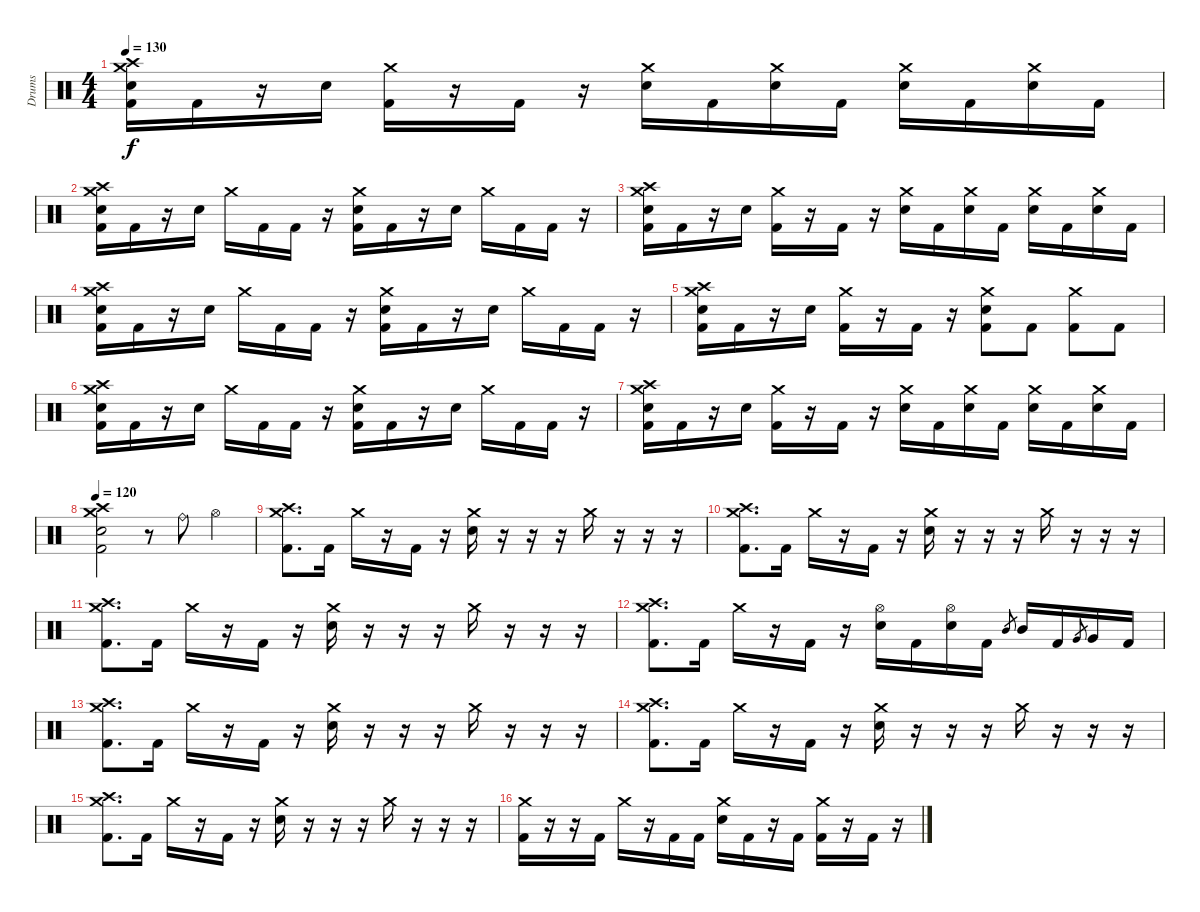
\track ("Drums" "Drums") {instrument percussion}
\staff {score}
\articulation defaults
\ts (4 4)
\tempo 130
\clef neutral
\ks c
("Crash medium (hit)" "Crash high (hit)" "Snare (hit) 2" "Kick (hit) 2").16{dy f} "Kick (hit) 2".16 r.16 "Snare (hit) 2".16 ("Crash medium (hit)" "Kick (hit) 2").16 r.16 "Kick (hit) 2".16 r.16 ("Crash medium (hit)" "Snare (hit) 2").16 "Kick (hit) 2".16 ("Crash medium (hit)" "Snare (hit) 2").16 "Kick (hit) 2".16 ("Crash medium (hit)" "Snare (hit) 2").16 "Kick (hit) 2".16 ("Crash medium (hit)" "Snare (hit) 2").16 "Kick (hit) 2".16 |
("Crash medium (hit)" "Crash high (hit)" "Snare (hit) 2" "Kick (hit) 2").16 "Kick (hit) 2".16 r.16 "Snare (hit) 2".16 "Crash medium (hit)".16 "Kick (hit) 2".16 "Kick (hit) 2".16 r.16 ("Crash medium (hit)" "Snare (hit) 2" "Kick (hit) 2").16 "Kick (hit) 2".16 r.16 "Snare (hit) 2".16 "Crash medium (hit)".16 "Kick (hit) 2".16 "Kick (hit) 2".16 r.16 |
("Crash medium (hit)" "Crash high (hit)" "Snare (hit) 2" "Kick (hit) 2").16 "Kick (hit) 2".16 r.16 "Snare (hit) 2".16 ("Crash medium (hit)" "Kick (hit) 2").16 r.16 "Kick (hit) 2".16 r.16 ("Crash medium (hit)" "Snare (hit) 2").16 "Kick (hit) 2".16 ("Crash medium (hit)" "Snare (hit) 2").16 "Kick (hit) 2".16 ("Crash medium (hit)" "Snare (hit) 2").16 "Kick (hit) 2".16 ("Crash medium (hit)" "Snare (hit) 2").16 "Kick (hit) 2".16 |
("Crash medium (hit)" "Crash high (hit)" "Snare (hit) 2" "Kick (hit) 2").16 "Kick (hit) 2".16 r.16 "Snare (hit) 2".16 "Crash medium (hit)".16 "Kick (hit) 2".16 "Kick (hit) 2".16 r.16 ("Crash medium (hit)" "Snare (hit) 2" "Kick (hit) 2").16 "Kick (hit) 2".16 r.16 "Snare (hit) 2".16 "Crash medium (hit)".16 "Kick (hit) 2".16 "Kick (hit) 2".16 r.16 |
("Crash medium (hit)" "Crash high (hit)" "Snare (hit) 2" "Kick (hit) 2").16 "Kick (hit) 2".16 r.16 "Snare (hit) 2".16 ("Crash medium (hit)" "Kick (hit) 2").16 r.16 "Kick (hit) 2".16 r.16 ("Crash medium (hit)" "Snare (hit) 2" "Kick (hit) 2").8 "Kick (hit) 2".8 ("Crash medium (hit)" "Kick (hit) 2").8 "Kick (hit) 2".8 |
("Crash medium (hit)" "Crash high (hit)" "Snare (hit) 2" "Kick (hit) 2").16 "Kick (hit) 2".16 r.16 "Snare (hit) 2".16 "Crash medium (hit)".16 "Kick (hit) 2".16 "Kick (hit) 2".16 r.16 ("Crash medium (hit)" "Snare (hit) 2" "Kick (hit) 2").16 "Kick (hit) 2".16 r.16 "Snare (hit) 2".16 "Crash medium (hit)".16 "Kick (hit) 2".16 "Kick (hit) 2".16 r.16 |
("Crash medium (hit)" "Crash high (hit)" "Snare (hit) 2" "Kick (hit) 2").16 "Kick (hit) 2".16 r.16 "Snare (hit) 2".16 ("Crash medium (hit)" "Kick (hit) 2").16 r.16 "Kick (hit) 2".16 r.16 ("Crash medium (hit)" "Snare (hit) 2").16 "Kick (hit) 2".16 ("Crash medium (hit)" "Snare (hit) 2").16 "Kick (hit) 2".16 ("Crash medium (hit)" "Snare (hit) 2").16 "Kick (hit) 2".16 ("Crash medium (hit)" "Snare (hit) 2").16 "Kick (hit) 2".16 |
\tempo 120
("Crash medium (hit)" "Crash high (hit)" "Snare (hit) 2" "Kick (hit) 2").2 r.8 "Ride (bell)".8 "Hi-Hat (open)".4 |
("Crash medium (hit)" "Crash high (hit)" "Kick (hit) 2").8{d} "Kick (hit) 2".16 "Crash medium (hit)".16 r.16 "Kick (hit) 2".16 r.16 ("Crash medium (hit)" "Snare (hit) 2").16 r.16 r.16 r.16 "Crash medium (hit)".16 r.16 r.16 r.16 |
("Crash medium (hit)" "Crash high (hit)" "Kick (hit) 2").8{d} "Kick (hit) 2".16 "Crash medium (hit)".16 r.16 "Kick (hit) 2".16 r.16 ("Crash medium (hit)" "Snare (hit) 2").16 r.16 r.16 r.16 "Crash medium (hit)".16 r.16 r.16 r.16 |
("Crash medium (hit)" "Crash high (hit)" "Kick (hit) 2").8{d} "Kick (hit) 2".16 "Crash medium (hit)".16 r.16 "Kick (hit) 2".16 r.16 ("Crash medium (hit)" "Snare (hit) 2").16 r.16 r.16 r.16 "Crash medium (hit)".16 r.16 r.16 r.16 |
("Crash medium (hit)" "Crash high (hit)" "Kick (hit) 2").8{d} "Kick (hit) 2".16 "Crash medium (hit)".16 r.16 "Kick (hit) 2".16 r.16 ("Hi-Hat (open)" "Snare (hit) 2").16 "Kick (hit) 2".16 ("Hi-Hat (open)" "Snare (hit) 2").16 "Kick (hit) 2".16 "Mid Tom (hit)".8{gr} "Mid Tom (hit)".16 "Kick (hit) 2".16 "Very Low Tom (hit)".8{gr} "Very Low Tom (hit)".16 "Kick (hit) 2".16 |
("Crash medium (hit)" "Crash high (hit)" "Kick (hit) 2").8{d} "Kick (hit) 2".16 "Crash medium (hit)".16 r.16 "Kick (hit) 2".16 r.16 ("Crash medium (hit)" "Snare (hit) 2").16 r.16 r.16 r.16 "Crash medium (hit)".16 r.16 r.16 r.16 |
("Crash medium (hit)" "Crash high (hit)" "Kick (hit) 2").8{d} "Kick (hit) 2".16 "Crash medium (hit)".16 r.16 "Kick (hit) 2".16 r.16 ("Crash medium (hit)" "Snare (hit) 2").16 r.16 r.16 r.16 "Crash medium (hit)".16 r.16 r.16 r.16 |
("Crash medium (hit)" "Crash high (hit)" "Kick (hit) 2").8{d} "Kick (hit) 2".16 "Crash medium (hit)".16 r.16 "Kick (hit) 2".16 r.16 ("Crash medium (hit)" "Snare (hit) 2").16 r.16 r.16 r.16 "Crash medium (hit)".16 r.16 r.16 r.16 |
("Crash medium (hit)" "Kick (hit) 2").16 r.16 r.16 "Kick (hit) 2".16 "Crash medium (hit)".16 r.16 "Kick (hit) 2".16 "Kick (hit) 2".16 ("Crash medium (hit)" "Snare (hit) 2").16 "Kick (hit) 2".16 r.16 "Kick (hit) 2".16 ("Crash medium (hit)" "Kick (hit) 2").16 r.16 "Kick (hit) 2".16 r.16
